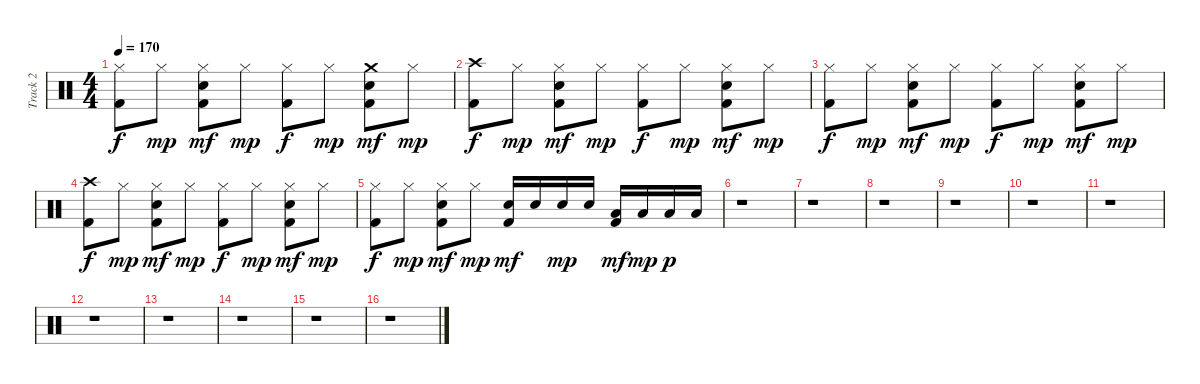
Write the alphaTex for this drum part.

\track ("Track 2" "Track 2") {instrument percussion}
\staff {score}
\articulation defaults
\ts (4 4)
\tempo 170
\clef neutral
\ks c
("Hi-Hat (closed)" "Kick (hit) 2").8{dy f} "Hi-Hat (closed)".8{dy mp} ("Hi-Hat (closed)" "Electric Snare (hit)" "Kick (hit) 2").8{dy mf} "Hi-Hat (closed)".8{dy mp} ("Hi-Hat (closed)" "Kick (hit) 2").8{dy f} "Hi-Hat (closed)".8{dy mp} ("Crash medium (hit)" "Electric Snare (hit)" "Kick (hit) 2").8{dy mf} "Hi-Hat (closed)".8{dy mp} |
("Crash high (hit)" "Kick (hit) 2").8{dy f} "Hi-Hat (closed)".8{dy mp} ("Hi-Hat (closed)" "Electric Snare (hit)" "Kick (hit) 2").8{dy mf} "Hi-Hat (closed)".8{dy mp} ("Hi-Hat (closed)" "Kick (hit) 2").8{dy f} "Hi-Hat (closed)".8{dy mp} ("Hi-Hat (closed)" "Electric Snare (hit)" "Kick (hit) 2").8{dy mf} "Hi-Hat (closed)".8{dy mp} |
("Hi-Hat (closed)" "Kick (hit) 2").8{dy f} "Hi-Hat (closed)".8{dy mp} ("Hi-Hat (closed)" "Electric Snare (hit)" "Kick (hit) 2").8{dy mf} "Hi-Hat (closed)".8{dy mp} ("Hi-Hat (closed)" "Kick (hit) 2").8{dy f} "Hi-Hat (closed)".8{dy mp} ("Hi-Hat (closed)" "Electric Snare (hit)" "Kick (hit) 2").8{dy mf} "Hi-Hat (closed)".8{dy mp} |
("Crash high (hit)" "Kick (hit) 2").8{dy f} "Hi-Hat (closed)".8{dy mp} ("Hi-Hat (closed)" "Electric Snare (hit)" "Kick (hit) 2").8{dy mf} "Hi-Hat (closed)".8{dy mp} ("Hi-Hat (closed)" "Kick (hit) 2").8{dy f} "Hi-Hat (closed)".8{dy mp} ("Hi-Hat (closed)" "Electric Snare (hit)" "Kick (hit) 2").8{dy mf} "Hi-Hat (closed)".8{dy mp} |
("Hi-Hat (closed)" "Kick (hit) 2").8{dy f} "Hi-Hat (closed)".8{dy mp} ("Hi-Hat (closed)" "Electric Snare (hit)" "Kick (hit) 2").8{dy mf} "Hi-Hat (closed)".8{dy mp} ("Electric Snare (hit)" "Kick (hit) 2").16{dy mf} "Electric Snare (hit)".16 "Electric Snare (hit)".16{dy mp} "Electric Snare (hit)".16 ("Low Tom (hit)" "Kick (hit) 2").16{dy mf} "Low Tom (hit)".16{dy mp} "Low Tom (hit)".16{dy p} "Low Tom (hit)".16 |
r.1 |
r.1 |
r.1 |
r.1 |
r.1 |
r.1 |
r.1 |
r.1 |
r.1 |
r.1 |
r.1
